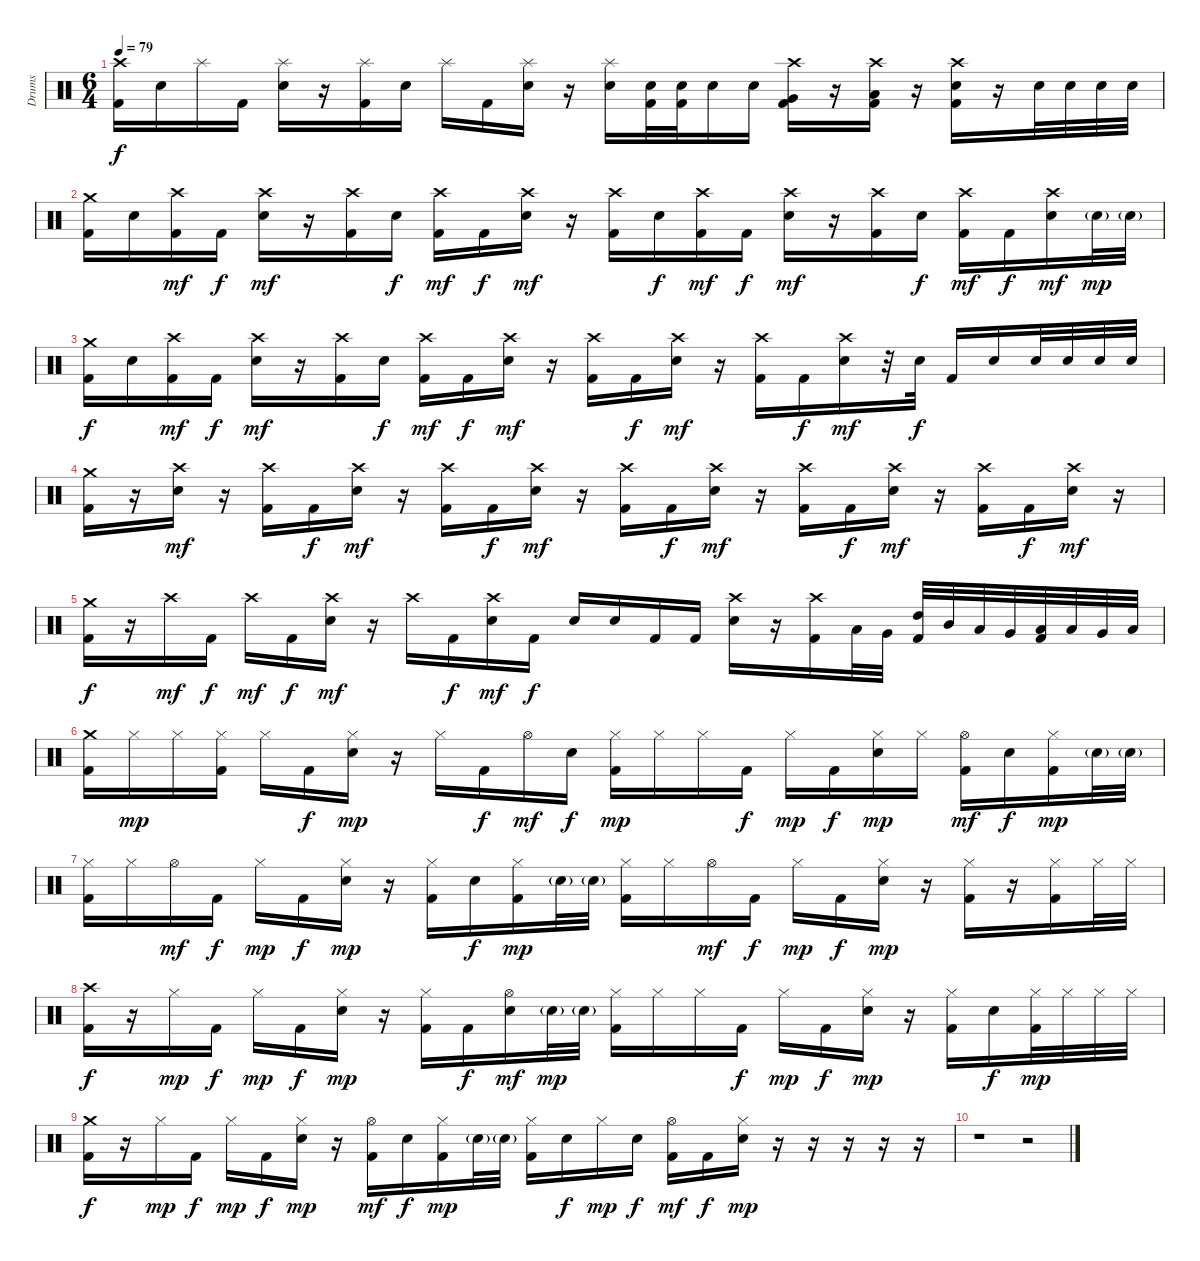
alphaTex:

\track ("Drums" "Drums") {instrument percussion}
\staff {score}
\articulation defaults
\ts (6 4)
\tempo 79
\clef neutral
\ks c
("Crash high (hit)" "Kick (hit) 2").16{dy f} "Electric Snare (hit)".16 "Splash (hit)".16 "Kick (hit) 2".16 ("Splash (hit)" "Electric Snare (hit)").16 r.16 ("Splash (hit)" "Kick (hit) 2").16 "Electric Snare (hit)".16 "Splash (hit)".16 "Kick (hit) 2".16 ("Splash (hit)" "Electric Snare (hit)").16 r.16 ("Splash (hit)" "Electric Snare (hit)").16 ("Electric Snare (hit)" "Kick (hit) 2").32 ("Electric Snare (hit)" "Kick (hit) 2").32 "Electric Snare (hit)".16 "Electric Snare (hit)".16 ("Crash high (hit)" "Very Low Tom (hit)" "Kick (hit) 2").16 r.16 ("Crash high (hit)" "Low Floor Tom (hit)" "Kick (hit) 2").16 r.16 ("Crash high (hit)" "Electric Snare (hit)" "Kick (hit) 2").16 r.16 "Electric Snare (hit)".32 "Electric Snare (hit)".32 "Electric Snare (hit)".32 "Electric Snare (hit)".32 |
("Crash medium (hit)" "Kick (hit) 2").16 "Electric Snare (hit)".16 ("Crash high (hit)" "Kick (hit) 2").16{dy mf} "Kick (hit) 2".16{dy f} ("Crash high (hit)" "Electric Snare (hit)").16{dy mf} r.16 ("Crash high (hit)" "Kick (hit) 2").16 "Electric Snare (hit)".16{dy f} ("Crash high (hit)" "Kick (hit) 2").16{dy mf} "Kick (hit) 2".16{dy f} ("Crash high (hit)" "Electric Snare (hit)").16{dy mf} r.16 ("Crash high (hit)" "Kick (hit) 2").16 "Electric Snare (hit)".16{dy f} ("Crash high (hit)" "Kick (hit) 2").16{dy mf} "Kick (hit) 2".16{dy f} ("Crash high (hit)" "Electric Snare (hit)").16{dy mf} r.16 ("Crash high (hit)" "Kick (hit) 2").16 "Electric Snare (hit)".16{dy f} ("Crash high (hit)" "Kick (hit) 2").16{dy mf} "Kick (hit) 2".16{dy f} ("Crash high (hit)" "Electric Snare (hit)").16{dy mf} "Electric Snare (hit)"{g}.32{dy mp} "Electric Snare (hit)"{g}.32 |
("Crash medium (hit)" "Kick (hit) 2").16{dy f} "Electric Snare (hit)".16 ("Crash high (hit)" "Kick (hit) 2").16{dy mf} "Kick (hit) 2".16{dy f} ("Crash high (hit)" "Electric Snare (hit)").16{dy mf} r.16 ("Crash high (hit)" "Kick (hit) 2").16 "Electric Snare (hit)".16{dy f} ("Crash high (hit)" "Kick (hit) 2").16{dy mf} "Kick (hit) 2".16{dy f} ("Crash high (hit)" "Electric Snare (hit)").16{dy mf} r.16 ("Crash high (hit)" "Kick (hit) 2").16 "Kick (hit) 2".16{dy f} ("Crash high (hit)" "Electric Snare (hit)").16{dy mf} r.16 ("Crash high (hit)" "Kick (hit) 2").16 "Kick (hit) 2".16{dy f} ("Crash high (hit)" "Electric Snare (hit)").16{dy mf} r.32 "Electric Snare (hit)".32{dy f} "Kick (hit) 2".16 "Electric Snare (hit)".16 "Electric Snare (hit)".32 "Electric Snare (hit)".32 "Electric Snare (hit)".32 "Electric Snare (hit)".32 |
("Crash medium (hit)" "Kick (hit) 2").16 r.16 ("Crash high (hit)" "Electric Snare (hit)").16{dy mf} r.16 ("Crash high (hit)" "Kick (hit) 2").16 "Kick (hit) 2".16{dy f} ("Crash high (hit)" "Electric Snare (hit)").16{dy mf} r.16 ("Crash high (hit)" "Kick (hit) 2").16 "Kick (hit) 2".16{dy f} ("Crash high (hit)" "Electric Snare (hit)").16{dy mf} r.16 ("Crash high (hit)" "Kick (hit) 2").16 "Kick (hit) 2".16{dy f} ("Crash high (hit)" "Electric Snare (hit)").16{dy mf} r.16 ("Crash high (hit)" "Kick (hit) 2").16 "Kick (hit) 2".16{dy f} ("Crash high (hit)" "Electric Snare (hit)").16{dy mf} r.16 ("Crash high (hit)" "Kick (hit) 2").16 "Kick (hit) 2".16{dy f} ("Crash high (hit)" "Electric Snare (hit)").16{dy mf} r.16 |
("Crash medium (hit)" "Kick (hit) 2").16{dy f} r.16 "Crash high (hit)".16{dy mf} "Kick (hit) 2".16{dy f} "Crash high (hit)".16{dy mf} "Kick (hit) 2".16{dy f} ("Crash high (hit)" "Electric Snare (hit)").16{dy mf} r.16 "Crash high (hit)".16 "Kick (hit) 2".16{dy f} ("Crash high (hit)" "Electric Snare (hit)").16{dy mf} "Kick (hit) 2".16{dy f} "Electric Snare (hit)".16 "Electric Snare (hit)".16 "Kick (hit) 2".16 "Kick (hit) 2".16 ("Crash high (hit)" "Electric Snare (hit)").16 r.16 ("Crash high (hit)" "Kick (hit) 2").16 "Low Floor Tom (hit)".32 "Very Low Tom (hit)".32 ("High Tom (hit)" "Kick (hit) 2").32 "Mid Tom (hit)".32 "Low Tom (hit)".32 "Very Low Tom (hit)".32 ("Low Floor Tom (hit)" "Kick (hit) 2").32 "Low Tom (hit)".32 "Very Low Tom (hit)".32 "Low Floor Tom (hit)".32 |
("Crash medium (hit)" "Kick (hit) 2").16 "Hi-Hat (closed)".16{dy mp} "Hi-Hat (closed)".16 ("Hi-Hat (closed)" "Kick (hit) 2").16 "Hi-Hat (closed)".16 "Kick (hit) 2".16{dy f} ("Hi-Hat (closed)" "Electric Snare (hit)").16{dy mp} r.16 "Hi-Hat (closed)".16 "Kick (hit) 2".16{dy f} "Hi-Hat (open)".16{dy mf} "Electric Snare (hit)".16{dy f} ("Hi-Hat (closed)" "Kick (hit) 2").16{dy mp} "Hi-Hat (closed)".16 "Hi-Hat (closed)".16 "Kick (hit) 2".16{dy f} "Hi-Hat (closed)".16{dy mp} "Kick (hit) 2".16{dy f} ("Hi-Hat (closed)" "Electric Snare (hit)").16{dy mp} "Hi-Hat (closed)".16 ("Hi-Hat (open)" "Kick (hit) 2").16{dy mf} "Electric Snare (hit)".16{dy f} ("Hi-Hat (closed)" "Kick (hit) 2").16{dy mp} "Electric Snare (hit)"{g}.32 "Electric Snare (hit)"{g}.32 |
("Hi-Hat (closed)" "Kick (hit) 2").16 "Hi-Hat (closed)".16 "Hi-Hat (open)".16{dy mf} "Kick (hit) 2".16{dy f} "Hi-Hat (closed)".16{dy mp} "Kick (hit) 2".16{dy f} ("Hi-Hat (closed)" "Electric Snare (hit)").16{dy mp} r.16 ("Hi-Hat (closed)" "Kick (hit) 2").16 "Electric Snare (hit)".16{dy f} ("Hi-Hat (closed)" "Kick (hit) 2").16{dy mp} "Electric Snare (hit)"{g}.32 "Electric Snare (hit)"{g}.32 ("Hi-Hat (closed)" "Kick (hit) 2").16 "Hi-Hat (closed)".16 "Hi-Hat (open)".16{dy mf} "Kick (hit) 2".16{dy f} "Hi-Hat (closed)".16{dy mp} "Kick (hit) 2".16{dy f} ("Hi-Hat (closed)" "Electric Snare (hit)").16{dy mp} r.16 ("Hi-Hat (closed)" "Kick (hit) 2").16 r.16 ("Hi-Hat (closed)" "Kick (hit) 2").16 "Hi-Hat (closed)".32 "Hi-Hat (closed)".32 |
("Crash high (hit)" "Kick (hit) 2").16{dy f} r.16 "Hi-Hat (closed)".16{dy mp} "Kick (hit) 2".16{dy f} "Hi-Hat (closed)".16{dy mp} "Kick (hit) 2".16{dy f} ("Hi-Hat (closed)" "Electric Snare (hit)").16{dy mp} r.16 ("Hi-Hat (closed)" "Kick (hit) 2").16 "Kick (hit) 2".16{dy f} ("Hi-Hat (open)" "Electric Snare (hit)").16{dy mf} "Electric Snare (hit)"{g}.32{dy mp} "Electric Snare (hit)"{g}.32 ("Hi-Hat (closed)" "Kick (hit) 2").16 "Hi-Hat (closed)".16 "Hi-Hat (closed)".16 "Kick (hit) 2".16{dy f} "Hi-Hat (closed)".16{dy mp} "Kick (hit) 2".16{dy f} ("Hi-Hat (closed)" "Electric Snare (hit)").16{dy mp} r.16 ("Hi-Hat (closed)" "Kick (hit) 2").16 "Electric Snare (hit)".16{dy f} ("Hi-Hat (closed)" "Kick (hit) 2").32{dy mp} "Hi-Hat (closed)".32 "Hi-Hat (closed)".32 "Hi-Hat (closed)".32 |
("Crash medium (hit)" "Kick (hit) 2").16{dy f} r.16 "Hi-Hat (closed)".16{dy mp} "Kick (hit) 2".16{dy f} "Hi-Hat (closed)".16{dy mp} "Kick (hit) 2".16{dy f} ("Hi-Hat (closed)" "Electric Snare (hit)").16{dy mp} r.16 ("Hi-Hat (open)" "Kick (hit) 2").16{dy mf} "Electric Snare (hit)".16{dy f} ("Hi-Hat (closed)" "Kick (hit) 2").16{dy mp} "Electric Snare (hit)"{g}.32 "Electric Snare (hit)"{g}.32 ("Hi-Hat (closed)" "Kick (hit) 2").16 "Electric Snare (hit)".16{dy f} "Hi-Hat (closed)".16{dy mp} "Electric Snare (hit)".16{dy f} ("Hi-Hat (open)" "Kick (hit) 2").16{dy mf} "Kick (hit) 2".16{dy f} ("Hi-Hat (closed)" "Electric Snare (hit)").16{dy mp} r.16 r.16 r.16 r.16 r.16 |
r.1 r.2
